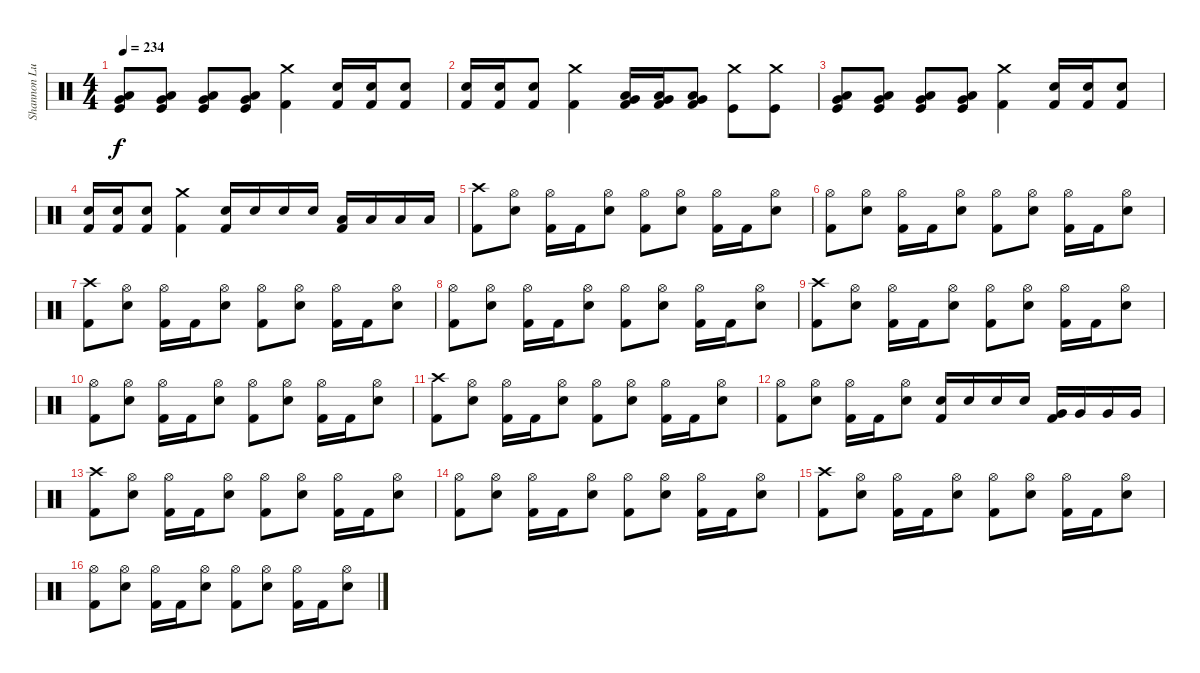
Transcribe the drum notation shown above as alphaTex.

\track ("Shannon Lucas (Drums)" "Shannon Lu") {instrument percussion}
\staff {score}
\articulation defaults
\ts (4 4)
\tempo 234
\clef neutral
\ks c
("Low Tom (hit)" "Very Low Tom (hit)" "Kick (hit)").8{dy f} ("Low Tom (hit)" "Very Low Tom (hit)" "Kick (hit)").8 ("Low Tom (hit)" "Very Low Tom (hit)" "Kick (hit)").8 ("Low Tom (hit)" "Very Low Tom (hit)" "Kick (hit)").8 ("Kick (hit) 2" "Crash medium (hit)").4 ("Electric Snare (hit)" "Kick (hit) 2").16 ("Electric Snare (hit)" "Kick (hit) 2").16 ("Electric Snare (hit)" "Kick (hit) 2").8 |
("Electric Snare (hit)" "Kick (hit) 2").16 ("Electric Snare (hit)" "Kick (hit) 2").16 ("Electric Snare (hit)" "Kick (hit) 2").8 ("Crash medium (hit)" "Kick (hit) 2").4 ("Low Tom (hit)" "Very Low Tom (hit)" "Kick (hit) 2").16 ("Low Tom (hit)" "Very Low Tom (hit)" "Kick (hit) 2").16 ("Low Tom (hit)" "Very Low Tom (hit)" "Kick (hit) 2").8 ("Crash medium (hit)" "Kick (hit)").8 ("Crash medium (hit)" "Kick (hit)").8 |
("Low Tom (hit)" "Very Low Tom (hit)" "Kick (hit)").8 ("Low Tom (hit)" "Very Low Tom (hit)" "Kick (hit)").8 ("Low Tom (hit)" "Very Low Tom (hit)" "Kick (hit)").8 ("Low Tom (hit)" "Very Low Tom (hit)" "Kick (hit)").8 ("Kick (hit) 2" "Crash medium (hit)").4 ("Electric Snare (hit)" "Kick (hit) 2").16 ("Electric Snare (hit)" "Kick (hit) 2").16 ("Electric Snare (hit)" "Kick (hit) 2").8 |
("Electric Snare (hit)" "Kick (hit) 2").16 ("Electric Snare (hit)" "Kick (hit) 2").16 ("Electric Snare (hit)" "Kick (hit) 2").8 ("Crash medium (hit)" "Kick (hit) 2").4 ("Electric Snare (hit)" "Kick (hit) 2").16 "Electric Snare (hit)".16 "Electric Snare (hit)".16 "Electric Snare (hit)".16 ("Low Tom (hit)" "Kick (hit) 2").16 "Low Tom (hit)".16 "Low Tom (hit)".16 "Low Tom (hit)".16 |
("Crash high (hit)" "Kick (hit) 2").8 ("Hi-Hat (open)" "Electric Snare (hit)").8 ("Hi-Hat (open)" "Kick (hit) 2").16 "Kick (hit) 2".16 ("Hi-Hat (open)" "Electric Snare (hit)").8 ("Hi-Hat (open)" "Kick (hit) 2").8 ("Hi-Hat (open)" "Electric Snare (hit)").8 ("Hi-Hat (open)" "Kick (hit) 2").16 "Kick (hit) 2".16 ("Hi-Hat (open)" "Electric Snare (hit)").8 |
("Hi-Hat (open)" "Kick (hit) 2").8 ("Hi-Hat (open)" "Electric Snare (hit)").8 ("Hi-Hat (open)" "Kick (hit) 2").16 "Kick (hit) 2".16 ("Hi-Hat (open)" "Electric Snare (hit)").8 ("Hi-Hat (open)" "Kick (hit) 2").8 ("Hi-Hat (open)" "Electric Snare (hit)").8 ("Hi-Hat (open)" "Kick (hit) 2").16 "Kick (hit) 2".16 ("Hi-Hat (open)" "Electric Snare (hit)").8 |
("Crash high (hit)" "Kick (hit) 2").8 ("Hi-Hat (open)" "Electric Snare (hit)").8 ("Hi-Hat (open)" "Kick (hit) 2").16 "Kick (hit) 2".16 ("Hi-Hat (open)" "Electric Snare (hit)").8 ("Hi-Hat (open)" "Kick (hit) 2").8 ("Hi-Hat (open)" "Electric Snare (hit)").8 ("Hi-Hat (open)" "Kick (hit) 2").16 "Kick (hit) 2".16 ("Hi-Hat (open)" "Electric Snare (hit)").8 |
("Hi-Hat (open)" "Kick (hit) 2").8 ("Hi-Hat (open)" "Electric Snare (hit)").8 ("Hi-Hat (open)" "Kick (hit) 2").16 "Kick (hit) 2".16 ("Hi-Hat (open)" "Electric Snare (hit)").8 ("Hi-Hat (open)" "Kick (hit) 2").8 ("Hi-Hat (open)" "Electric Snare (hit)").8 ("Hi-Hat (open)" "Kick (hit) 2").16 "Kick (hit) 2".16 ("Hi-Hat (open)" "Electric Snare (hit)").8 |
("Crash high (hit)" "Kick (hit) 2").8 ("Hi-Hat (open)" "Electric Snare (hit)").8 ("Hi-Hat (open)" "Kick (hit) 2").16 "Kick (hit) 2".16 ("Hi-Hat (open)" "Electric Snare (hit)").8 ("Hi-Hat (open)" "Kick (hit) 2").8 ("Hi-Hat (open)" "Electric Snare (hit)").8 ("Hi-Hat (open)" "Kick (hit) 2").16 "Kick (hit) 2".16 ("Hi-Hat (open)" "Electric Snare (hit)").8 |
("Hi-Hat (open)" "Kick (hit) 2").8 ("Hi-Hat (open)" "Electric Snare (hit)").8 ("Hi-Hat (open)" "Kick (hit) 2").16 "Kick (hit) 2".16 ("Hi-Hat (open)" "Electric Snare (hit)").8 ("Hi-Hat (open)" "Kick (hit) 2").8 ("Hi-Hat (open)" "Electric Snare (hit)").8 ("Hi-Hat (open)" "Kick (hit) 2").16 "Kick (hit) 2".16 ("Hi-Hat (open)" "Electric Snare (hit)").8 |
("Crash high (hit)" "Kick (hit) 2").8 ("Hi-Hat (open)" "Electric Snare (hit)").8 ("Hi-Hat (open)" "Kick (hit) 2").16 "Kick (hit) 2".16 ("Hi-Hat (open)" "Electric Snare (hit)").8 ("Hi-Hat (open)" "Kick (hit) 2").8 ("Hi-Hat (open)" "Electric Snare (hit)").8 ("Hi-Hat (open)" "Kick (hit) 2").16 "Kick (hit) 2".16 ("Hi-Hat (open)" "Electric Snare (hit)").8 |
("Hi-Hat (open)" "Kick (hit) 2").8 ("Hi-Hat (open)" "Electric Snare (hit)").8 ("Hi-Hat (open)" "Kick (hit) 2").16 "Kick (hit) 2".16 ("Hi-Hat (open)" "Electric Snare (hit)").8 ("Electric Snare (hit)" "Kick (hit) 2").16 "Electric Snare (hit)".16 "Electric Snare (hit)".16 "Electric Snare (hit)".16 ("Very Low Tom (hit)" "Kick (hit) 2").16 "Very Low Tom (hit)".16 "Very Low Tom (hit)".16 "Very Low Tom (hit)".16 |
("Crash high (hit)" "Kick (hit) 2").8 ("Hi-Hat (open)" "Electric Snare (hit)").8 ("Hi-Hat (open)" "Kick (hit) 2").16 "Kick (hit) 2".16 ("Hi-Hat (open)" "Electric Snare (hit)").8 ("Hi-Hat (open)" "Kick (hit) 2").8 ("Hi-Hat (open)" "Electric Snare (hit)").8 ("Hi-Hat (open)" "Kick (hit) 2").16 "Kick (hit) 2".16 ("Hi-Hat (open)" "Electric Snare (hit)").8 |
("Hi-Hat (open)" "Kick (hit) 2").8 ("Hi-Hat (open)" "Electric Snare (hit)").8 ("Hi-Hat (open)" "Kick (hit) 2").16 "Kick (hit) 2".16 ("Hi-Hat (open)" "Electric Snare (hit)").8 ("Hi-Hat (open)" "Kick (hit) 2").8 ("Hi-Hat (open)" "Electric Snare (hit)").8 ("Hi-Hat (open)" "Kick (hit) 2").16 "Kick (hit) 2".16 ("Hi-Hat (open)" "Electric Snare (hit)").8 |
("Crash high (hit)" "Kick (hit) 2").8 ("Hi-Hat (open)" "Electric Snare (hit)").8 ("Hi-Hat (open)" "Kick (hit) 2").16 "Kick (hit) 2".16 ("Hi-Hat (open)" "Electric Snare (hit)").8 ("Hi-Hat (open)" "Kick (hit) 2").8 ("Hi-Hat (open)" "Electric Snare (hit)").8 ("Hi-Hat (open)" "Kick (hit) 2").16 "Kick (hit) 2".16 ("Hi-Hat (open)" "Electric Snare (hit)").8 |
("Hi-Hat (open)" "Kick (hit) 2").8 ("Hi-Hat (open)" "Electric Snare (hit)").8 ("Hi-Hat (open)" "Kick (hit) 2").16 "Kick (hit) 2".16 ("Hi-Hat (open)" "Electric Snare (hit)").8 ("Hi-Hat (open)" "Kick (hit) 2").8 ("Hi-Hat (open)" "Electric Snare (hit)").8 ("Hi-Hat (open)" "Kick (hit) 2").16 "Kick (hit) 2".16 ("Hi-Hat (open)" "Electric Snare (hit)").8
